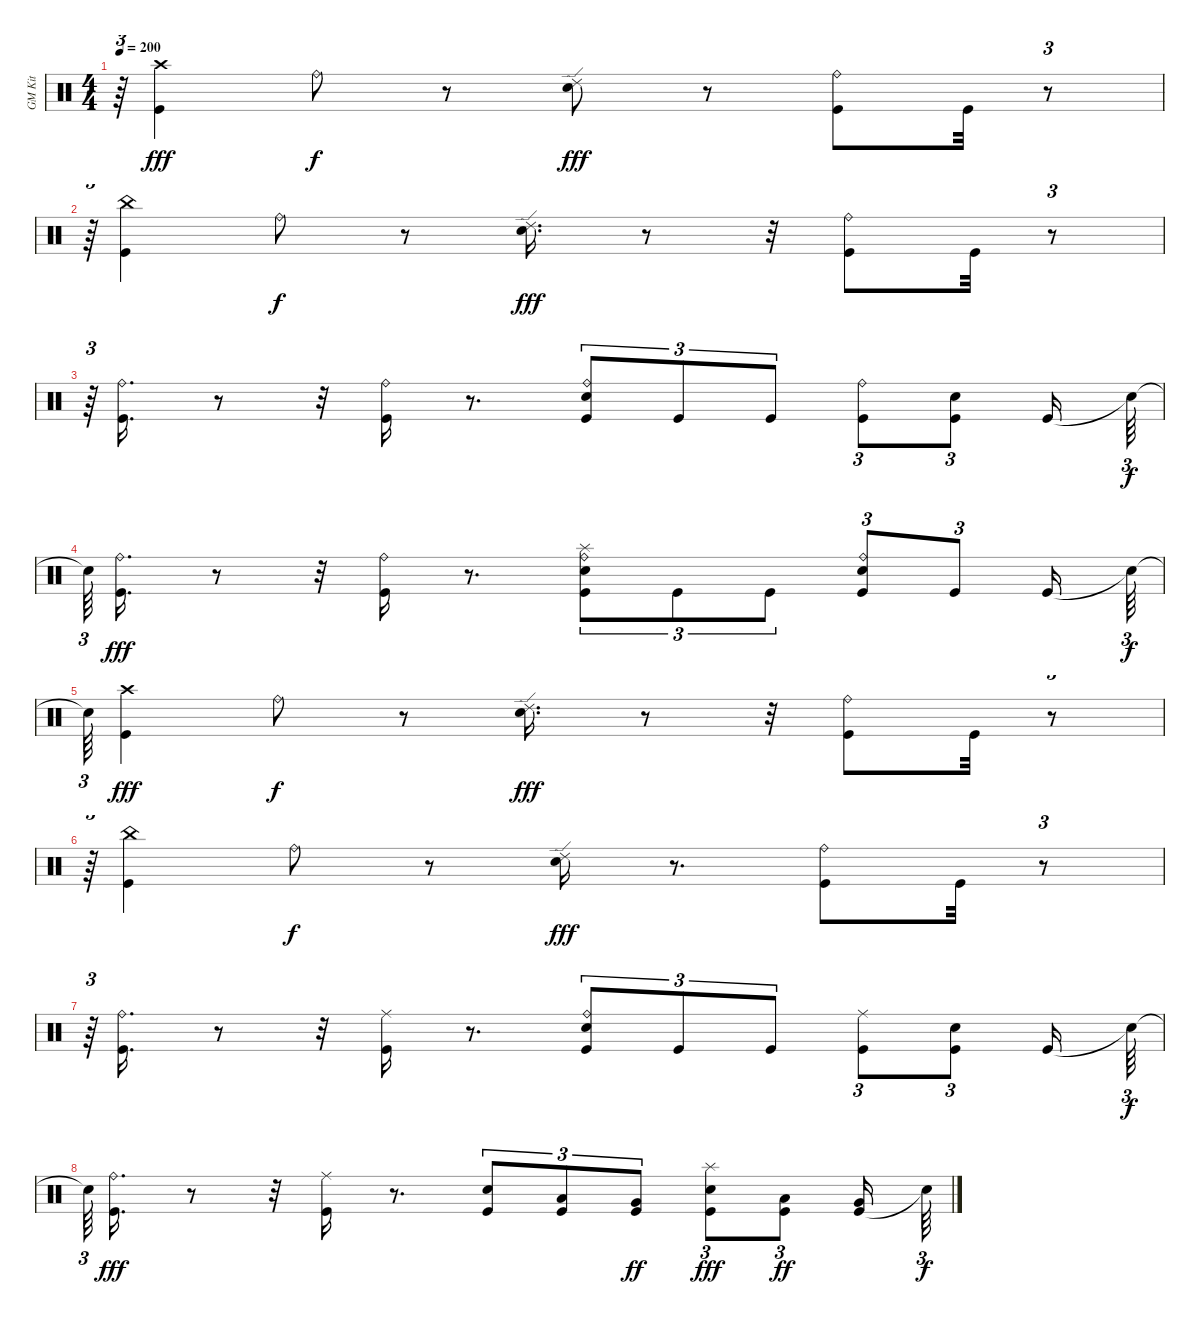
\track ("GM Kit" "GM Kit") {instrument percussion}
\staff {score}
\articulation defaults
\ts (4 4)
\tempo 200
\clef neutral
\ks c
r.64{tu (3 2) dy fff} ("Kick (hit)" "Crash high (hit)").4 "Ride (bell)".8{dy f} r.8 ("Snare (hit) 2" "Ride (edge) 2").8{dy fff} r.8 ("Kick (hit)" "Ride (bell)").8 "Kick (hit)".32 r.8{tu (3 2)} |
r.64{tu (3 2)} ("Kick (hit)" "China (hit)").4 "Ride (bell)".8{dy f} r.8 ("Snare (hit) 2" "Ride (edge) 2").16{d dy fff} r.8 r.32 ("Kick (hit)" "Ride (bell)").8 "Kick (hit)".32 r.8{tu (3 2)} |
r.64{tu (3 2)} ("Kick (hit)" "Ride (bell)").16{d} r.8 r.32 ("Kick (hit)" "Ride (bell)").16 r.8{d} ("Kick (hit)" "Snare (hit) 2" "Ride (bell)").8{tu (3 2)} "Kick (hit)".8{tu (3 2)} "Kick (hit)".8{tu (3 2)} ("Kick (hit)" "Ride (bell)").8{tu (3 2)} ("Kick (hit)" "Snare (hit) 2").8{tu (3 2)} "Kick (hit)".16 "Snare (hit)"{t}.64{tu (3 2) dy f} |
"Snare (hit)"{t}.64{tu (3 2)} ("Kick (hit)" "Ride (bell)").16{d dy fff} r.8 r.32 ("Kick (hit)" "Ride (bell)").16 r.8{d} ("Kick (hit)" "Snare (hit) 2" "Ride (bell)" "Splash (hit)").8{tu (3 2)} "Kick (hit)".8{tu (3 2)} "Kick (hit)".8{tu (3 2)} ("Kick (hit)" "Snare (hit) 2" "Ride (bell)").8{tu (3 2)} "Kick (hit)".8{tu (3 2)} "Kick (hit)".16 "Snare (hit)"{t}.64{tu (3 2) dy f} |
"Snare (hit)"{t}.64{tu (3 2)} ("Kick (hit)" "Crash high (hit)").4{dy fff} "Ride (bell)".8{dy f} r.8 ("Snare (hit) 2" "Ride (edge) 2").16{d dy fff} r.8 r.32 ("Kick (hit)" "Ride (bell)").8 "Kick (hit)".32 r.8{tu (3 2)} |
r.64{tu (3 2)} ("Kick (hit)" "China (hit)").4 "Ride (bell)".8{dy f} r.8 ("Snare (hit) 2" "Ride (edge) 2").16{dy fff} r.8{d} ("Kick (hit)" "Ride (bell)").8 "Kick (hit)".32 r.8{tu (3 2)} |
r.64{tu (3 2)} ("Kick (hit)" "Ride (bell)").16{d} r.8 r.32 ("Kick (hit)" "Ride (middle)").16 r.8{d} ("Kick (hit)" "Snare (hit) 2" "Ride (bell)").8{tu (3 2)} "Kick (hit)".8{tu (3 2)} "Kick (hit)".8{tu (3 2)} ("Kick (hit)" "Ride (middle)").8{tu (3 2)} ("Kick (hit)" "Snare (hit) 2").8{tu (3 2)} "Kick (hit)".16 "Snare (hit)"{t}.64{tu (3 2) dy f} |
"Snare (hit)"{t}.64{tu (3 2)} ("Kick (hit)" "Ride (bell)").16{d dy fff} r.8 r.32 ("Kick (hit)" "Ride (middle)").16 r.8{d} ("Kick (hit)" "Snare (hit) 2").8{tu (3 2)} ("Kick (hit)" "Low Tom (hit)").8{tu (3 2)} ("Kick (hit)" "Very Low Tom (hit)").8{tu (3 2) dy ff} ("Kick (hit)" "Snare (hit) 2" "Splash (hit)").8{tu (3 2) dy fff} ("Kick (hit)" "Low Tom (hit)").8{tu (3 2) dy ff} ("Kick (hit)" "Very Low Tom (hit)").16 "Snare (hit)"{t}.64{tu (3 2) dy f}
